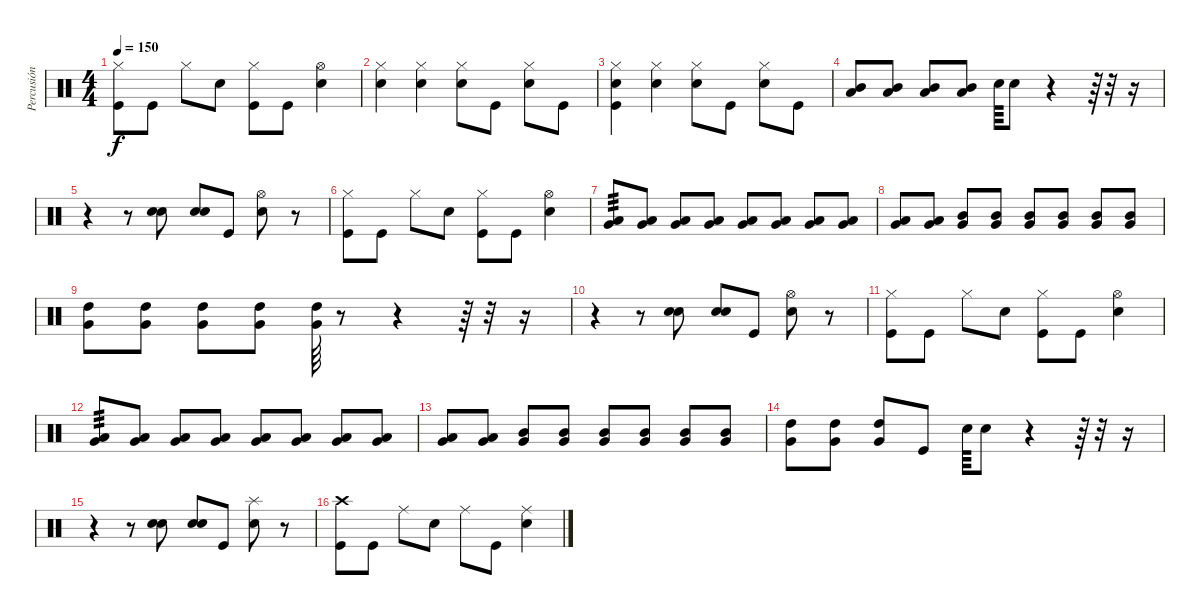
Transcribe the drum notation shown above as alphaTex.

\track ("Percusión" "Percusión") {instrument percussion}
\staff {score}
\articulation defaults
\ts (4 4)
\tempo 150
\clef neutral
\ks c
("Hi-Hat (closed)" "Kick (hit)").8{dy f} "Kick (hit)".8 "Hi-Hat (closed)".8 "Snare (hit) 2".8 ("Hi-Hat (closed)" "Kick (hit)").8 "Kick (hit)".8 ("Hi-Hat (open)" "Snare (hit) 2").4 |
("Hi-Hat (closed)" "Snare (hit) 2").4 ("Hi-Hat (closed)" "Snare (hit) 2").4 ("Hi-Hat (closed)" "Snare (hit) 2").8 "Kick (hit)".8 ("Hi-Hat (closed)" "Snare (hit) 2").8 "Kick (hit)".8 |
("Hi-Hat (closed)" "Snare (hit) 2" "Kick (hit)").4 ("Hi-Hat (closed)" "Snare (hit) 2").4 ("Hi-Hat (closed)" "Snare (hit) 2").8 "Kick (hit)".8 ("Hi-Hat (closed)" "Snare (hit) 2").8 "Kick (hit)".8 |
("Mid Tom (hit)" "Low Floor Tom (hit)").8 ("Mid Tom (hit)" "Low Floor Tom (hit)").8 ("Mid Tom (hit)" "Low Floor Tom (hit)").8 ("Mid Tom (hit)" "Low Floor Tom (hit)").8 "Snare (hit) 2".64 "Snare (hit) 2".8 r.4 r.64 r.32 r.16 |
r.4 r.8 ("Snare (hit) 2" "Snare (hit) 2").8 ("Snare (hit) 2" "Snare (hit) 2").8 "Kick (hit)".8 ("Hi-Hat (open)" "Snare (hit) 2").8 r.8 |
("Hi-Hat (closed)" "Kick (hit)").8 "Kick (hit)".8 "Hi-Hat (closed)".8 "Snare (hit) 2".8 ("Hi-Hat (closed)" "Kick (hit)").8 "Kick (hit)".8 ("Hi-Hat (open)" "Snare (hit) 2").4 |
("Low Tom (hit)" "Very Low Tom (hit)").8{tp 3} ("Low Tom (hit)" "Very Low Tom (hit)").8 ("Low Tom (hit)" "Very Low Tom (hit)").8 ("Low Tom (hit)" "Very Low Tom (hit)").8 ("Low Tom (hit)" "Very Low Tom (hit)").8 ("Low Tom (hit)" "Very Low Tom (hit)").8 ("Low Tom (hit)" "Very Low Tom (hit)").8 ("Low Tom (hit)" "Very Low Tom (hit)").8 |
("Low Tom (hit)" "Very Low Tom (hit)").8 ("Low Tom (hit)" "Very Low Tom (hit)").8 ("Mid Tom (hit)" "Very Low Tom (hit)").8 ("Mid Tom (hit)" "Very Low Tom (hit)").8 ("Mid Tom (hit)" "Very Low Tom (hit)").8 ("Mid Tom (hit)" "Very Low Tom (hit)").8 ("Mid Tom (hit)" "Very Low Tom (hit)").8 ("Mid Tom (hit)" "Very Low Tom (hit)").8 |
("High Tom (hit)" "Very Low Tom (hit)").8 ("High Tom (hit)" "Very Low Tom (hit)").8 ("High Tom (hit)" "Very Low Tom (hit)").8 ("High Tom (hit)" "Very Low Tom (hit)").8 ("High Tom (hit)" "Very Low Tom (hit)").64 r.8 r.4 r.64 r.32 r.16 |
r.4 r.8 ("Snare (hit) 2" "Snare (hit) 2").8 ("Snare (hit) 2" "Snare (hit) 2").8 "Kick (hit)".8 ("Hi-Hat (open)" "Snare (hit) 2").8 r.8 |
("Hi-Hat (closed)" "Kick (hit)").8 "Kick (hit)".8 "Hi-Hat (closed)".8 "Snare (hit) 2".8 ("Hi-Hat (closed)" "Kick (hit)").8 "Kick (hit)".8 ("Hi-Hat (open)" "Snare (hit) 2").4 |
("Low Tom (hit)" "Very Low Tom (hit)").8{tp 3} ("Low Tom (hit)" "Very Low Tom (hit)").8 ("Low Tom (hit)" "Very Low Tom (hit)").8 ("Low Tom (hit)" "Very Low Tom (hit)").8 ("Low Tom (hit)" "Very Low Tom (hit)").8 ("Low Tom (hit)" "Very Low Tom (hit)").8 ("Low Tom (hit)" "Very Low Tom (hit)").8 ("Low Tom (hit)" "Very Low Tom (hit)").8 |
("Low Tom (hit)" "Very Low Tom (hit)").8 ("Low Tom (hit)" "Very Low Tom (hit)").8 ("Mid Tom (hit)" "Very Low Tom (hit)").8 ("Mid Tom (hit)" "Very Low Tom (hit)").8 ("Mid Tom (hit)" "Very Low Tom (hit)").8 ("Mid Tom (hit)" "Very Low Tom (hit)").8 ("Mid Tom (hit)" "Very Low Tom (hit)").8 ("Mid Tom (hit)" "Very Low Tom (hit)").8 |
("High Tom (hit)" "Very Low Tom (hit)").8 ("High Tom (hit)" "Very Low Tom (hit)").8 ("High Tom (hit)" "Very Low Tom (hit)").8 "Kick (hit)".8 "Snare (hit) 2".64 "Snare (hit) 2".8 r.4 r.64 r.32 r.16 |
r.4 r.8 ("Snare (hit) 2" "Snare (hit) 2").8 ("Snare (hit) 2" "Snare (hit) 2").8 "Kick (hit)".8 ("Splash (hit)" "Snare (hit) 2").8 r.8 |
("Crash high (hit)" "Kick (hit)").8 "Kick (hit)".8 "Ride (middle)".8 "Snare (hit) 2".8 "Ride (middle)".8 "Kick (hit)".8 ("Ride (middle)" "Snare (hit) 2").4
